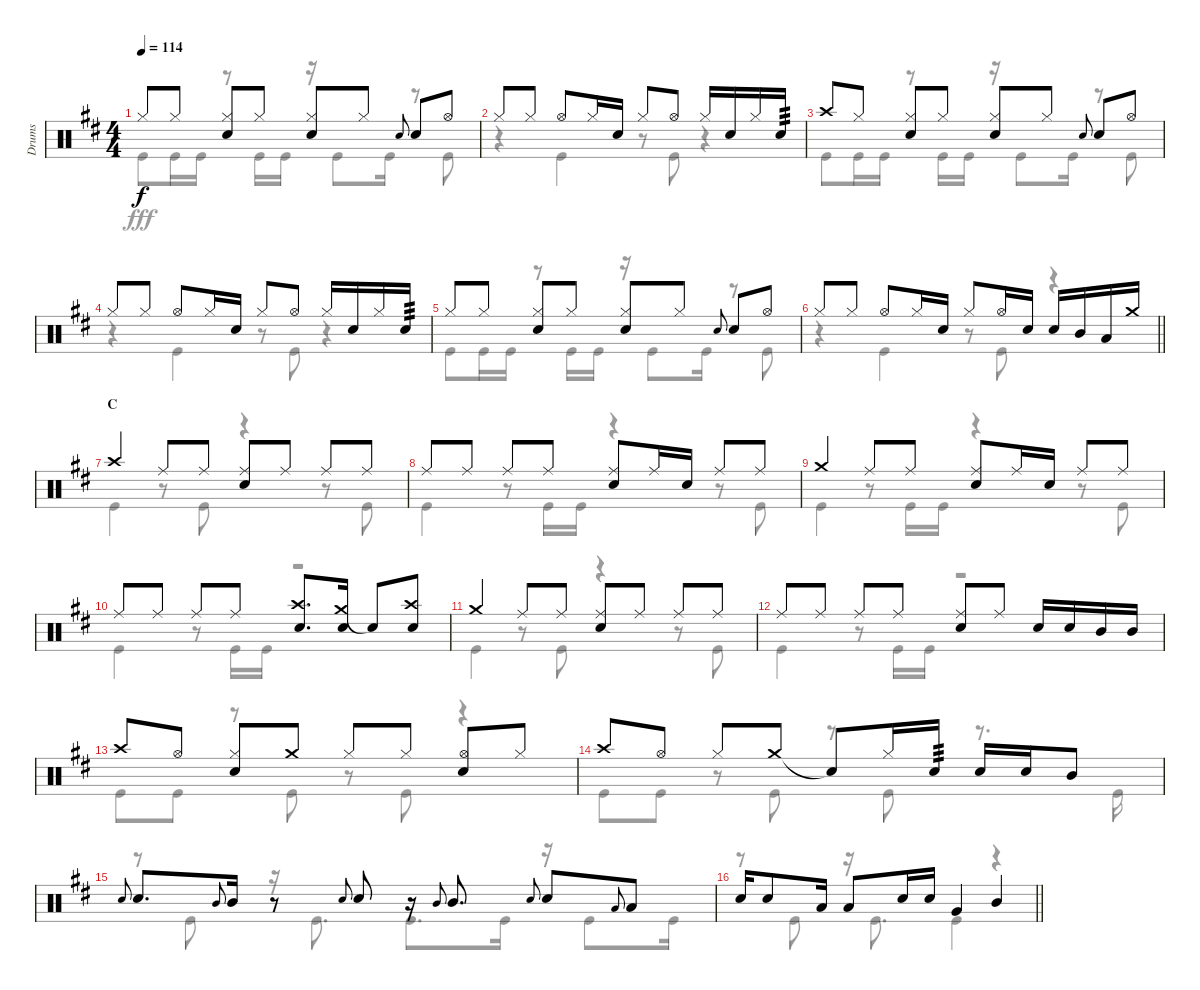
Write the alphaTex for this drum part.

\track ("Drums" "Drums") {instrument percussion}
\staff {score}
\articulation defaults
\voice
\ts (4 4)
\tempo 114
\clef neutral
\ks d "Hi-Hat (closed)".8{dy f} "Hi-Hat (closed)".8
("Hi-Hat (closed)" "Snare (hit) 2").8 "Hi-Hat (closed)".8 ("Hi-Hat (closed)" "Snare (hit) 2").8 "Hi-Hat (closed)".8 "Snare (hit) 2".8{gr onbeat} "Snare (hit) 2".8 "Hi-Hat (open)".8 |
"Hi-Hat (closed)".8 "Hi-Hat (closed)".8 "Hi-Hat (open)".8 "Hi-Hat (closed)".16 "Snare (hit) 2".16 "Hi-Hat (closed)".8 "Hi-Hat (open)".8 "Hi-Hat (closed)".16 "Snare (hit) 2".16 "Hi-Hat (closed)".16 "Snare (hit) 2".16{tp 3} |
"Crash high (hit)".8 "Hi-Hat (closed)".8 ("Hi-Hat (closed)" "Snare (hit) 2").8 "Hi-Hat (closed)".8 ("Hi-Hat (closed)" "Snare (hit) 2").8 "Hi-Hat (closed)".8 "Snare (hit) 2".8{gr onbeat} "Snare (hit) 2".8 "Hi-Hat (open)".8 |
"Hi-Hat (closed)".8 "Hi-Hat (closed)".8 "Hi-Hat (open)".8 "Hi-Hat (closed)".16 "Snare (hit) 2".16 "Hi-Hat (closed)".8 "Hi-Hat (open)".8 "Hi-Hat (closed)".16 "Snare (hit) 2".16 "Hi-Hat (closed)".16 "Snare (hit) 2".16{tp 3} |
"Hi-Hat (closed)".8 "Hi-Hat (closed)".8 ("Hi-Hat (closed)" "Snare (hit) 2").8 "Hi-Hat (closed)".8 ("Hi-Hat (closed)" "Snare (hit) 2").8 "Hi-Hat (closed)".8 "Snare (hit) 2".8{gr onbeat} "Snare (hit) 2".8 "Hi-Hat (open)".8 |
\barLineRight lightlight "Hi-Hat (closed)".8 "Hi-Hat (closed)".8 "Hi-Hat (open)".8 "Hi-Hat (closed)".16 "Snare (hit) 2".16 "Hi-Hat (closed)".8 "Hi-Hat (open)".16 "Snare (hit) 2".16 "Snare (hit) 2".16 "Mid Tom (hit)".16 "Low Tom (hit)".16 "Crash medium (hit)".16
|
\section ("" "C")
"Crash high (hit)".4 "Ride (middle)".8 "Ride (middle)".8 ("Ride (middle)" "Snare (hit) 2").8 "Ride (middle)".8 "Ride (middle)".8 "Ride (middle)".8 |
"Ride (middle)".8 "Ride (middle)".8 "Ride (middle)".8 "Ride (middle)".8 ("Ride (middle)" "Snare (hit) 2").8 "Ride (middle)".16 "Snare (hit) 2".16 "Ride (middle)".8 "Ride (middle)".8 |
"Crash medium (hit)".4 "Ride (middle)".8 "Ride (middle)".8 ("Ride (middle)" "Snare (hit) 2").8 "Ride (middle)".16 "Snare (hit) 2".16 "Ride (middle)".8 "Ride (middle)".8 |
"Ride (middle)".8 "Ride (middle)".8 "Ride (middle)".8 "Ride (middle)".8 ("Crash high (hit)" "Snare (hit) 2").8{d} ("Crash medium (hit)" "Snare (hit) 2").16 "Snare (hit)"{t}.8 ("Crash high (hit)" "Snare (hit) 2").8 |
"Crash medium (hit)".4 "Ride (middle)".8 "Ride (middle)".8 ("Ride (middle)" "Snare (hit) 2").8 "Ride (middle)".8 "Ride (middle)".8 "Ride (middle)".8 |
"Ride (middle)".8 "Ride (middle)".8 "Ride (middle)".8 "Ride (middle)".8 ("Ride (middle)" "Snare (hit) 2").8 "Ride (middle)".8 "Snare (hit) 2".16 "Snare (hit) 2".16 "Mid Tom (hit)".16 "Mid Tom (hit)".16 |
"Crash high (hit)".8 "Hi-Hat (open)".8 ("Hi-Hat (closed)" "Snare (hit) 2").8 "Crash medium (hit)".8 "Hi-Hat (closed)".8 "Hi-Hat (closed)".8 ("Hi-Hat (open)" "Snare (hit) 2").8 "Hi-Hat (closed)".8 |
"Crash high (hit)".8 "Hi-Hat (open)".8 "Hi-Hat (closed)".8 "Crash medium (hit)".8 "Snare (hit)"{t}.8 "Hi-Hat (closed)".16 "Snare (hit) 2".16{tp 3} "Snare (hit) 2".16 "Snare (hit) 2".16 "Mid Tom (hit)".8 |
"Snare (hit) 2".8{gr onbeat} "Snare (hit) 2".8{d} "Mid Tom (hit)".8{gr onbeat} "Mid Tom (hit)".16 r.8 "Snare (hit) 2".8{gr onbeat} "Snare (hit) 2".8 r.16 "Mid Tom (hit)".8{gr onbeat} "Mid Tom (hit)".8{d} "Snare (hit) 2".8{gr onbeat} "Snare (hit) 2".8 "Low Tom (hit)".8{gr onbeat} "Low Tom (hit)".8 |
\barLineRight lightlight "Snare (hit) 2".16 "Snare (hit) 2".8 "Low Tom (hit)".16 "Low Tom (hit)".8 "Snare (hit) 2".16 "Snare (hit) 2".16 "Very Low Tom (hit)".4 "Mid Tom (hit)".4
\voice
\clef neutral
\ottava regular
\simile none
\ks d "Kick (hit)".8{dy fff} "Kick (hit)".16 "Kick (hit)".16
r.8 "Kick (hit)".16 "Kick (hit)".16 r.16 "Kick (hit)".8 "Kick (hit)".16 r.8 "Kick (hit)".8 |
r.4 "Kick (hit)".4 r.8 "Kick (hit)".8 r.4 |
"Kick (hit)".8 "Kick (hit)".16 "Kick (hit)".16 r.8 "Kick (hit)".16 "Kick (hit)".16 r.16 "Kick (hit)".8 "Kick (hit)".16 r.8 "Kick (hit)".8 |
r.4 "Kick (hit)".4 r.8 "Kick (hit)".8 r.4 |
"Kick (hit)".8 "Kick (hit)".16 "Kick (hit)".16 r.8 "Kick (hit)".16 "Kick (hit)".16 r.16 "Kick (hit)".8 "Kick (hit)".16 r.8 "Kick (hit)".8 |
\barLineRight lightlight
r.4 "Kick (hit)".4 r.8 "Kick (hit)".8 r.4 |
"Kick (hit)".4 r.8 "Kick (hit)".8 r.4 r.8 "Kick (hit)".8 |
"Kick (hit)".4 r.8 "Kick (hit)".16 "Kick (hit)".16 r.4 r.8 "Kick (hit)".8 |
"Kick (hit)".4 r.8 "Kick (hit)".16 "Kick (hit)".16 r.4 r.8 "Kick (hit)".8 |
"Kick (hit)".4 r.8 "Kick (hit)".16 "Kick (hit)".16 r.2 |
"Kick (hit)".4 r.8 "Kick (hit)".8 r.4 r.8 "Kick (hit)".8 |
"Kick (hit)".4 r.8 "Kick (hit)".16 "Kick (hit)".16 r.2 |
"Kick (hit)".8 "Kick (hit)".8 r.8 "Kick (hit)".8 r.8 "Kick (hit)".8 r.4 |
"Kick (hit)".8 "Kick (hit)".8 r.8 "Kick (hit)".8 r.8 "Kick (hit)".8 r.8{d} "Kick (hit)".16 |
r.8 "Kick (hit)".8 r.16 "Kick (hit)".8{d} "Kick (hit)".8{d} "Kick (hit)".16 r.16 "Kick (hit)".8 "Kick (hit)".16 |
\barLineRight lightlight
r.8 "Kick (hit)".8 r.16 "Kick (hit)".8{d} "Kick (hit)".4 r.4
